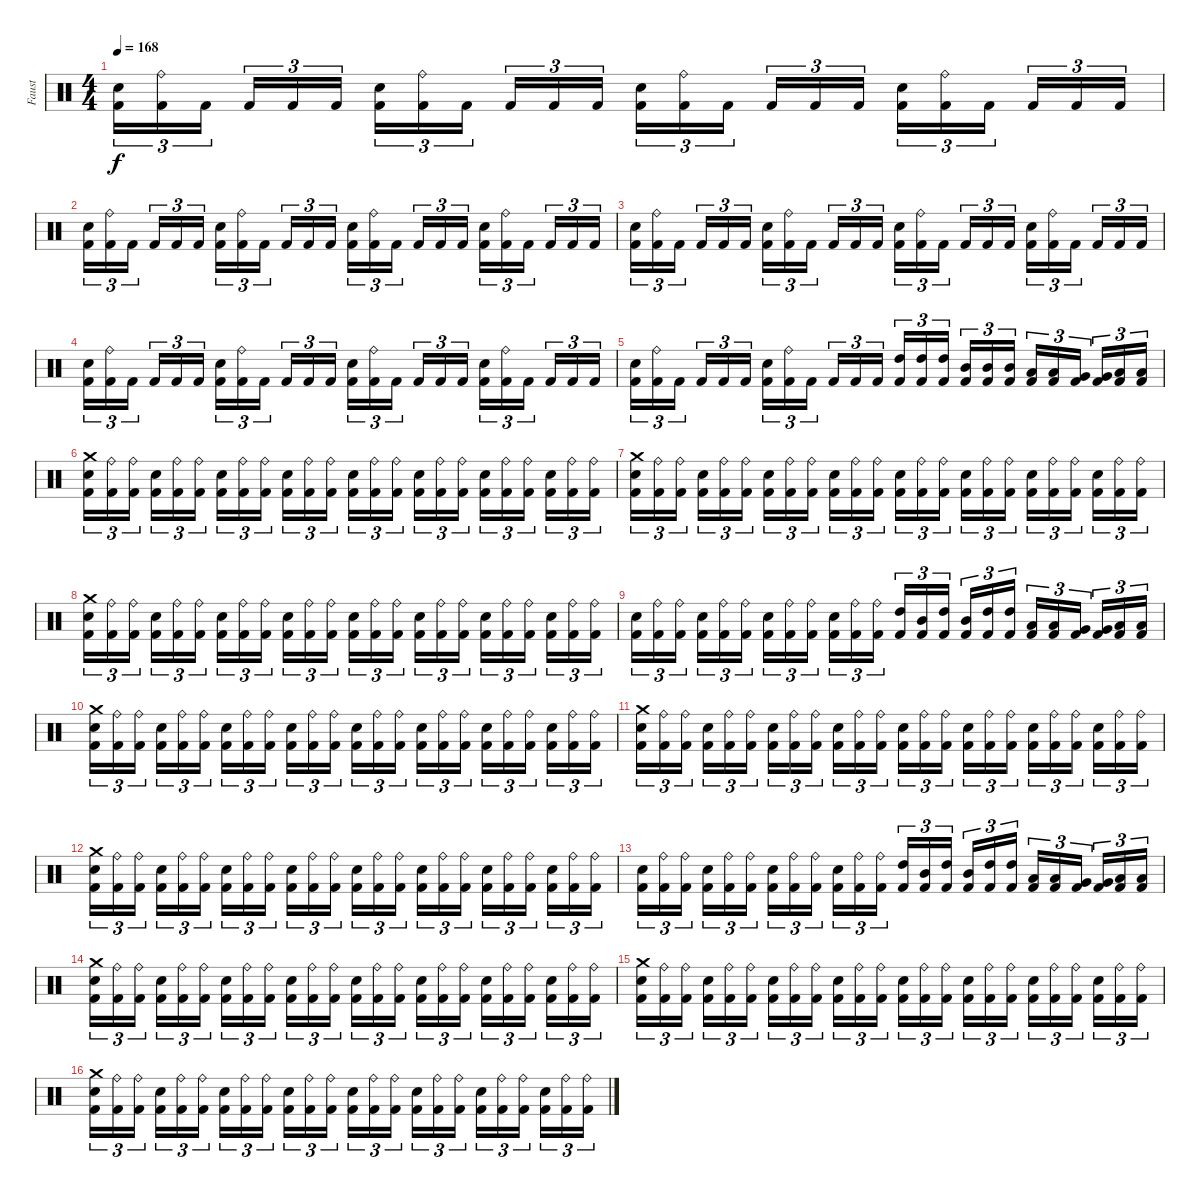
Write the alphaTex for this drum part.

\track ("Faust" "Faust") {instrument percussion}
\staff {score}
\articulation defaults
\ts (4 4)
\tempo 168
\clef neutral
\ks c
("Electric Snare (hit)" "Kick (hit) 2").16{tu (3 2) dy f} ("Ride (bell)" "Kick (hit) 2").16{tu (3 2)} "Kick (hit) 2".16{tu (3 2)} "Kick (hit) 2".16{tu (3 2)} "Kick (hit) 2".16{tu (3 2)} "Kick (hit) 2".16{tu (3 2)} ("Electric Snare (hit)" "Kick (hit) 2").16{tu (3 2)} ("Ride (bell)" "Kick (hit) 2").16{tu (3 2)} "Kick (hit) 2".16{tu (3 2)} "Kick (hit) 2".16{tu (3 2)} "Kick (hit) 2".16{tu (3 2)} "Kick (hit) 2".16{tu (3 2)} ("Electric Snare (hit)" "Kick (hit) 2").16{tu (3 2)} ("Ride (bell)" "Kick (hit) 2").16{tu (3 2)} "Kick (hit) 2".16{tu (3 2)} "Kick (hit) 2".16{tu (3 2)} "Kick (hit) 2".16{tu (3 2)} "Kick (hit) 2".16{tu (3 2)} ("Electric Snare (hit)" "Kick (hit) 2").16{tu (3 2)} ("Ride (bell)" "Kick (hit) 2").16{tu (3 2)} "Kick (hit) 2".16{tu (3 2)} "Kick (hit) 2".16{tu (3 2)} "Kick (hit) 2".16{tu (3 2)} "Kick (hit) 2".16{tu (3 2)} |
("Electric Snare (hit)" "Kick (hit) 2").16{tu (3 2)} ("Ride (bell)" "Kick (hit) 2").16{tu (3 2)} "Kick (hit) 2".16{tu (3 2)} "Kick (hit) 2".16{tu (3 2)} "Kick (hit) 2".16{tu (3 2)} "Kick (hit) 2".16{tu (3 2)} ("Electric Snare (hit)" "Kick (hit) 2").16{tu (3 2)} ("Ride (bell)" "Kick (hit) 2").16{tu (3 2)} "Kick (hit) 2".16{tu (3 2)} "Kick (hit) 2".16{tu (3 2)} "Kick (hit) 2".16{tu (3 2)} "Kick (hit) 2".16{tu (3 2)} ("Electric Snare (hit)" "Kick (hit) 2").16{tu (3 2)} ("Ride (bell)" "Kick (hit) 2").16{tu (3 2)} "Kick (hit) 2".16{tu (3 2)} "Kick (hit) 2".16{tu (3 2)} "Kick (hit) 2".16{tu (3 2)} "Kick (hit) 2".16{tu (3 2)} ("Electric Snare (hit)" "Kick (hit) 2").16{tu (3 2)} ("Ride (bell)" "Kick (hit) 2").16{tu (3 2)} "Kick (hit) 2".16{tu (3 2)} "Kick (hit) 2".16{tu (3 2)} "Kick (hit) 2".16{tu (3 2)} "Kick (hit) 2".16{tu (3 2)} |
("Electric Snare (hit)" "Kick (hit) 2").16{tu (3 2)} ("Ride (bell)" "Kick (hit) 2").16{tu (3 2)} "Kick (hit) 2".16{tu (3 2)} "Kick (hit) 2".16{tu (3 2)} "Kick (hit) 2".16{tu (3 2)} "Kick (hit) 2".16{tu (3 2)} ("Electric Snare (hit)" "Kick (hit) 2").16{tu (3 2)} ("Ride (bell)" "Kick (hit) 2").16{tu (3 2)} "Kick (hit) 2".16{tu (3 2)} "Kick (hit) 2".16{tu (3 2)} "Kick (hit) 2".16{tu (3 2)} "Kick (hit) 2".16{tu (3 2)} ("Electric Snare (hit)" "Kick (hit) 2").16{tu (3 2)} ("Ride (bell)" "Kick (hit) 2").16{tu (3 2)} "Kick (hit) 2".16{tu (3 2)} "Kick (hit) 2".16{tu (3 2)} "Kick (hit) 2".16{tu (3 2)} "Kick (hit) 2".16{tu (3 2)} ("Electric Snare (hit)" "Kick (hit) 2").16{tu (3 2)} ("Ride (bell)" "Kick (hit) 2").16{tu (3 2)} "Kick (hit) 2".16{tu (3 2)} "Kick (hit) 2".16{tu (3 2)} "Kick (hit) 2".16{tu (3 2)} "Kick (hit) 2".16{tu (3 2)} |
("Electric Snare (hit)" "Kick (hit) 2").16{tu (3 2)} ("Ride (bell)" "Kick (hit) 2").16{tu (3 2)} "Kick (hit) 2".16{tu (3 2)} "Kick (hit) 2".16{tu (3 2)} "Kick (hit) 2".16{tu (3 2)} "Kick (hit) 2".16{tu (3 2)} ("Electric Snare (hit)" "Kick (hit) 2").16{tu (3 2)} ("Ride (bell)" "Kick (hit) 2").16{tu (3 2)} "Kick (hit) 2".16{tu (3 2)} "Kick (hit) 2".16{tu (3 2)} "Kick (hit) 2".16{tu (3 2)} "Kick (hit) 2".16{tu (3 2)} ("Electric Snare (hit)" "Kick (hit) 2").16{tu (3 2)} ("Ride (bell)" "Kick (hit) 2").16{tu (3 2)} "Kick (hit) 2".16{tu (3 2)} "Kick (hit) 2".16{tu (3 2)} "Kick (hit) 2".16{tu (3 2)} "Kick (hit) 2".16{tu (3 2)} ("Electric Snare (hit)" "Kick (hit) 2").16{tu (3 2)} ("Ride (bell)" "Kick (hit) 2").16{tu (3 2)} "Kick (hit) 2".16{tu (3 2)} "Kick (hit) 2".16{tu (3 2)} "Kick (hit) 2".16{tu (3 2)} "Kick (hit) 2".16{tu (3 2)} |
("Electric Snare (hit)" "Kick (hit) 2").16{tu (3 2)} ("Ride (bell)" "Kick (hit) 2").16{tu (3 2)} "Kick (hit) 2".16{tu (3 2)} "Kick (hit) 2".16{tu (3 2)} "Kick (hit) 2".16{tu (3 2)} "Kick (hit) 2".16{tu (3 2)} ("Electric Snare (hit)" "Kick (hit) 2").16{tu (3 2)} ("Ride (bell)" "Kick (hit) 2").16{tu (3 2)} "Kick (hit) 2".16{tu (3 2)} "Kick (hit) 2".16{tu (3 2)} "Kick (hit) 2".16{tu (3 2)} "Kick (hit) 2".16{tu (3 2)} ("High Tom (hit)" "Kick (hit) 2").16{tu (3 2)} ("High Tom (hit)" "Kick (hit) 2").16{tu (3 2)} ("High Tom (hit)" "Kick (hit) 2").16{tu (3 2)} ("Mid Tom (hit)" "Kick (hit) 2").16{tu (3 2)} ("Mid Tom (hit)" "Kick (hit) 2").16{tu (3 2)} ("Mid Tom (hit)" "Kick (hit) 2").16{tu (3 2)} ("Low Tom (hit)" "Kick (hit) 2").16{tu (3 2)} ("Low Tom (hit)" "Kick (hit) 2").16{tu (3 2)} ("Very Low Tom (hit)" "Kick (hit) 2").16{tu (3 2)} ("Very Low Tom (hit)" "Kick (hit) 2").16{tu (3 2)} ("Low Floor Tom (hit)" "Kick (hit) 2").16{tu (3 2)} ("Low Floor Tom (hit)" "Kick (hit) 2").16{tu (3 2)} |
("Crash medium (hit)" "Electric Snare (hit)" "Kick (hit) 2").16{tu (3 2)} ("Ride (bell)" "Kick (hit) 2").16{tu (3 2)} ("Ride (bell)" "Kick (hit) 2").16{tu (3 2)} ("Electric Snare (hit)" "Kick (hit) 2").16{tu (3 2)} ("Ride (bell)" "Kick (hit) 2").16{tu (3 2)} ("Ride (bell)" "Kick (hit) 2").16{tu (3 2)} ("Electric Snare (hit)" "Kick (hit) 2").16{tu (3 2)} ("Ride (bell)" "Kick (hit) 2").16{tu (3 2)} ("Ride (bell)" "Kick (hit) 2").16{tu (3 2)} ("Electric Snare (hit)" "Kick (hit) 2").16{tu (3 2)} ("Ride (bell)" "Kick (hit) 2").16{tu (3 2)} ("Ride (bell)" "Kick (hit) 2").16{tu (3 2)} ("Electric Snare (hit)" "Kick (hit) 2").16{tu (3 2)} ("Ride (bell)" "Kick (hit) 2").16{tu (3 2)} ("Ride (bell)" "Kick (hit) 2").16{tu (3 2)} ("Electric Snare (hit)" "Kick (hit) 2").16{tu (3 2)} ("Ride (bell)" "Kick (hit) 2").16{tu (3 2)} ("Ride (bell)" "Kick (hit) 2").16{tu (3 2)} ("Electric Snare (hit)" "Kick (hit) 2").16{tu (3 2)} ("Ride (bell)" "Kick (hit) 2").16{tu (3 2)} ("Ride (bell)" "Kick (hit) 2").16{tu (3 2)} ("Electric Snare (hit)" "Kick (hit) 2").16{tu (3 2)} ("Ride (bell)" "Kick (hit) 2").16{tu (3 2)} ("Ride (bell)" "Kick (hit) 2").16{tu (3 2)} |
("Crash medium (hit)" "Electric Snare (hit)" "Kick (hit) 2").16{tu (3 2)} ("Ride (bell)" "Kick (hit) 2").16{tu (3 2)} ("Ride (bell)" "Kick (hit) 2").16{tu (3 2)} ("Electric Snare (hit)" "Kick (hit) 2").16{tu (3 2)} ("Ride (bell)" "Kick (hit) 2").16{tu (3 2)} ("Ride (bell)" "Kick (hit) 2").16{tu (3 2)} ("Electric Snare (hit)" "Kick (hit) 2").16{tu (3 2)} ("Ride (bell)" "Kick (hit) 2").16{tu (3 2)} ("Ride (bell)" "Kick (hit) 2").16{tu (3 2)} ("Electric Snare (hit)" "Kick (hit) 2").16{tu (3 2)} ("Ride (bell)" "Kick (hit) 2").16{tu (3 2)} ("Ride (bell)" "Kick (hit) 2").16{tu (3 2)} ("Electric Snare (hit)" "Kick (hit) 2").16{tu (3 2)} ("Ride (bell)" "Kick (hit) 2").16{tu (3 2)} ("Ride (bell)" "Kick (hit) 2").16{tu (3 2)} ("Electric Snare (hit)" "Kick (hit) 2").16{tu (3 2)} ("Ride (bell)" "Kick (hit) 2").16{tu (3 2)} ("Ride (bell)" "Kick (hit) 2").16{tu (3 2)} ("Electric Snare (hit)" "Kick (hit) 2").16{tu (3 2)} ("Ride (bell)" "Kick (hit) 2").16{tu (3 2)} ("Ride (bell)" "Kick (hit) 2").16{tu (3 2)} ("Electric Snare (hit)" "Kick (hit) 2").16{tu (3 2)} ("Ride (bell)" "Kick (hit) 2").16{tu (3 2)} ("Ride (bell)" "Kick (hit) 2").16{tu (3 2)} |
("Crash medium (hit)" "Electric Snare (hit)" "Kick (hit) 2").16{tu (3 2)} ("Ride (bell)" "Kick (hit) 2").16{tu (3 2)} ("Ride (bell)" "Kick (hit) 2").16{tu (3 2)} ("Electric Snare (hit)" "Kick (hit) 2").16{tu (3 2)} ("Ride (bell)" "Kick (hit) 2").16{tu (3 2)} ("Ride (bell)" "Kick (hit) 2").16{tu (3 2)} ("Electric Snare (hit)" "Kick (hit) 2").16{tu (3 2)} ("Ride (bell)" "Kick (hit) 2").16{tu (3 2)} ("Ride (bell)" "Kick (hit) 2").16{tu (3 2)} ("Electric Snare (hit)" "Kick (hit) 2").16{tu (3 2)} ("Ride (bell)" "Kick (hit) 2").16{tu (3 2)} ("Ride (bell)" "Kick (hit) 2").16{tu (3 2)} ("Electric Snare (hit)" "Kick (hit) 2").16{tu (3 2)} ("Ride (bell)" "Kick (hit) 2").16{tu (3 2)} ("Ride (bell)" "Kick (hit) 2").16{tu (3 2)} ("Electric Snare (hit)" "Kick (hit) 2").16{tu (3 2)} ("Ride (bell)" "Kick (hit) 2").16{tu (3 2)} ("Ride (bell)" "Kick (hit) 2").16{tu (3 2)} ("Electric Snare (hit)" "Kick (hit) 2").16{tu (3 2)} ("Ride (bell)" "Kick (hit) 2").16{tu (3 2)} ("Ride (bell)" "Kick (hit) 2").16{tu (3 2)} ("Electric Snare (hit)" "Kick (hit) 2").16{tu (3 2)} ("Ride (bell)" "Kick (hit) 2").16{tu (3 2)} ("Ride (bell)" "Kick (hit) 2").16{tu (3 2)} |
("Electric Snare (hit)" "Kick (hit) 2").16{tu (3 2)} ("Ride (bell)" "Kick (hit) 2").16{tu (3 2)} ("Ride (bell)" "Kick (hit) 2").16{tu (3 2)} ("Electric Snare (hit)" "Kick (hit) 2").16{tu (3 2)} ("Ride (bell)" "Kick (hit) 2").16{tu (3 2)} ("Ride (bell)" "Kick (hit) 2").16{tu (3 2)} ("Electric Snare (hit)" "Kick (hit) 2").16{tu (3 2)} ("Ride (bell)" "Kick (hit) 2").16{tu (3 2)} ("Ride (bell)" "Kick (hit) 2").16{tu (3 2)} ("Electric Snare (hit)" "Kick (hit) 2").16{tu (3 2)} ("Ride (bell)" "Kick (hit) 2").16{tu (3 2)} ("Ride (bell)" "Kick (hit) 2").16{tu (3 2)} ("High Tom (hit)" "Kick (hit) 2").16{tu (3 2)} ("Mid Tom (hit)" "Kick (hit) 2").16{tu (3 2)} ("High Tom (hit)" "Kick (hit) 2").16{tu (3 2)} ("Mid Tom (hit)" "Kick (hit) 2").16{tu (3 2)} ("High Tom (hit)" "Kick (hit) 2").16{tu (3 2)} ("High Tom (hit)" "Kick (hit) 2").16{tu (3 2)} ("Low Tom (hit)" "Kick (hit) 2").16{tu (3 2)} ("Low Tom (hit)" "Kick (hit) 2").16{tu (3 2)} ("Very Low Tom (hit)" "Kick (hit) 2").16{tu (3 2)} ("Very Low Tom (hit)" "Kick (hit) 2").16{tu (3 2)} ("Low Floor Tom (hit)" "Kick (hit) 2").16{tu (3 2)} ("Low Floor Tom (hit)" "Kick (hit) 2").16{tu (3 2)} |
("Crash medium (hit)" "Electric Snare (hit)" "Kick (hit) 2").16{tu (3 2)} ("Ride (bell)" "Kick (hit) 2").16{tu (3 2)} ("Ride (bell)" "Kick (hit) 2").16{tu (3 2)} ("Electric Snare (hit)" "Kick (hit) 2").16{tu (3 2)} ("Ride (bell)" "Kick (hit) 2").16{tu (3 2)} ("Ride (bell)" "Kick (hit) 2").16{tu (3 2)} ("Electric Snare (hit)" "Kick (hit) 2").16{tu (3 2)} ("Ride (bell)" "Kick (hit) 2").16{tu (3 2)} ("Ride (bell)" "Kick (hit) 2").16{tu (3 2)} ("Electric Snare (hit)" "Kick (hit) 2").16{tu (3 2)} ("Ride (bell)" "Kick (hit) 2").16{tu (3 2)} ("Ride (bell)" "Kick (hit) 2").16{tu (3 2)} ("Electric Snare (hit)" "Kick (hit) 2").16{tu (3 2)} ("Ride (bell)" "Kick (hit) 2").16{tu (3 2)} ("Ride (bell)" "Kick (hit) 2").16{tu (3 2)} ("Electric Snare (hit)" "Kick (hit) 2").16{tu (3 2)} ("Ride (bell)" "Kick (hit) 2").16{tu (3 2)} ("Ride (bell)" "Kick (hit) 2").16{tu (3 2)} ("Electric Snare (hit)" "Kick (hit) 2").16{tu (3 2)} ("Ride (bell)" "Kick (hit) 2").16{tu (3 2)} ("Ride (bell)" "Kick (hit) 2").16{tu (3 2)} ("Electric Snare (hit)" "Kick (hit) 2").16{tu (3 2)} ("Ride (bell)" "Kick (hit) 2").16{tu (3 2)} ("Ride (bell)" "Kick (hit) 2").16{tu (3 2)} |
("Crash medium (hit)" "Electric Snare (hit)" "Kick (hit) 2").16{tu (3 2)} ("Ride (bell)" "Kick (hit) 2").16{tu (3 2)} ("Ride (bell)" "Kick (hit) 2").16{tu (3 2)} ("Electric Snare (hit)" "Kick (hit) 2").16{tu (3 2)} ("Ride (bell)" "Kick (hit) 2").16{tu (3 2)} ("Ride (bell)" "Kick (hit) 2").16{tu (3 2)} ("Electric Snare (hit)" "Kick (hit) 2").16{tu (3 2)} ("Ride (bell)" "Kick (hit) 2").16{tu (3 2)} ("Ride (bell)" "Kick (hit) 2").16{tu (3 2)} ("Electric Snare (hit)" "Kick (hit) 2").16{tu (3 2)} ("Ride (bell)" "Kick (hit) 2").16{tu (3 2)} ("Ride (bell)" "Kick (hit) 2").16{tu (3 2)} ("Electric Snare (hit)" "Kick (hit) 2").16{tu (3 2)} ("Ride (bell)" "Kick (hit) 2").16{tu (3 2)} ("Ride (bell)" "Kick (hit) 2").16{tu (3 2)} ("Electric Snare (hit)" "Kick (hit) 2").16{tu (3 2)} ("Ride (bell)" "Kick (hit) 2").16{tu (3 2)} ("Ride (bell)" "Kick (hit) 2").16{tu (3 2)} ("Electric Snare (hit)" "Kick (hit) 2").16{tu (3 2)} ("Ride (bell)" "Kick (hit) 2").16{tu (3 2)} ("Ride (bell)" "Kick (hit) 2").16{tu (3 2)} ("Electric Snare (hit)" "Kick (hit) 2").16{tu (3 2)} ("Ride (bell)" "Kick (hit) 2").16{tu (3 2)} ("Ride (bell)" "Kick (hit) 2").16{tu (3 2)} |
("Crash medium (hit)" "Electric Snare (hit)" "Kick (hit) 2").16{tu (3 2)} ("Ride (bell)" "Kick (hit) 2").16{tu (3 2)} ("Ride (bell)" "Kick (hit) 2").16{tu (3 2)} ("Electric Snare (hit)" "Kick (hit) 2").16{tu (3 2)} ("Ride (bell)" "Kick (hit) 2").16{tu (3 2)} ("Ride (bell)" "Kick (hit) 2").16{tu (3 2)} ("Electric Snare (hit)" "Kick (hit) 2").16{tu (3 2)} ("Ride (bell)" "Kick (hit) 2").16{tu (3 2)} ("Ride (bell)" "Kick (hit) 2").16{tu (3 2)} ("Electric Snare (hit)" "Kick (hit) 2").16{tu (3 2)} ("Ride (bell)" "Kick (hit) 2").16{tu (3 2)} ("Ride (bell)" "Kick (hit) 2").16{tu (3 2)} ("Electric Snare (hit)" "Kick (hit) 2").16{tu (3 2)} ("Ride (bell)" "Kick (hit) 2").16{tu (3 2)} ("Ride (bell)" "Kick (hit) 2").16{tu (3 2)} ("Electric Snare (hit)" "Kick (hit) 2").16{tu (3 2)} ("Ride (bell)" "Kick (hit) 2").16{tu (3 2)} ("Ride (bell)" "Kick (hit) 2").16{tu (3 2)} ("Electric Snare (hit)" "Kick (hit) 2").16{tu (3 2)} ("Ride (bell)" "Kick (hit) 2").16{tu (3 2)} ("Ride (bell)" "Kick (hit) 2").16{tu (3 2)} ("Electric Snare (hit)" "Kick (hit) 2").16{tu (3 2)} ("Ride (bell)" "Kick (hit) 2").16{tu (3 2)} ("Ride (bell)" "Kick (hit) 2").16{tu (3 2)} |
("Electric Snare (hit)" "Kick (hit) 2").16{tu (3 2)} ("Ride (bell)" "Kick (hit) 2").16{tu (3 2)} ("Ride (bell)" "Kick (hit) 2").16{tu (3 2)} ("Electric Snare (hit)" "Kick (hit) 2").16{tu (3 2)} ("Ride (bell)" "Kick (hit) 2").16{tu (3 2)} ("Ride (bell)" "Kick (hit) 2").16{tu (3 2)} ("Electric Snare (hit)" "Kick (hit) 2").16{tu (3 2)} ("Ride (bell)" "Kick (hit) 2").16{tu (3 2)} ("Ride (bell)" "Kick (hit) 2").16{tu (3 2)} ("Electric Snare (hit)" "Kick (hit) 2").16{tu (3 2)} ("Ride (bell)" "Kick (hit) 2").16{tu (3 2)} ("Ride (bell)" "Kick (hit) 2").16{tu (3 2)} ("High Tom (hit)" "Kick (hit) 2").16{tu (3 2)} ("Mid Tom (hit)" "Kick (hit) 2").16{tu (3 2)} ("High Tom (hit)" "Kick (hit) 2").16{tu (3 2)} ("Mid Tom (hit)" "Kick (hit) 2").16{tu (3 2)} ("High Tom (hit)" "Kick (hit) 2").16{tu (3 2)} ("High Tom (hit)" "Kick (hit) 2").16{tu (3 2)} ("Low Tom (hit)" "Kick (hit) 2").16{tu (3 2)} ("Low Tom (hit)" "Kick (hit) 2").16{tu (3 2)} ("Very Low Tom (hit)" "Kick (hit) 2").16{tu (3 2)} ("Very Low Tom (hit)" "Kick (hit) 2").16{tu (3 2)} ("Low Floor Tom (hit)" "Kick (hit) 2").16{tu (3 2)} ("Low Floor Tom (hit)" "Kick (hit) 2").16{tu (3 2)} |
("Crash medium (hit)" "Electric Snare (hit)" "Kick (hit) 2").16{tu (3 2)} ("Ride (bell)" "Kick (hit) 2").16{tu (3 2)} ("Ride (bell)" "Kick (hit) 2").16{tu (3 2)} ("Electric Snare (hit)" "Kick (hit) 2").16{tu (3 2)} ("Ride (bell)" "Kick (hit) 2").16{tu (3 2)} ("Ride (bell)" "Kick (hit) 2").16{tu (3 2)} ("Electric Snare (hit)" "Kick (hit) 2").16{tu (3 2)} ("Ride (bell)" "Kick (hit) 2").16{tu (3 2)} ("Ride (bell)" "Kick (hit) 2").16{tu (3 2)} ("Electric Snare (hit)" "Kick (hit) 2").16{tu (3 2)} ("Ride (bell)" "Kick (hit) 2").16{tu (3 2)} ("Ride (bell)" "Kick (hit) 2").16{tu (3 2)} ("Electric Snare (hit)" "Kick (hit) 2").16{tu (3 2)} ("Ride (bell)" "Kick (hit) 2").16{tu (3 2)} ("Ride (bell)" "Kick (hit) 2").16{tu (3 2)} ("Electric Snare (hit)" "Kick (hit) 2").16{tu (3 2)} ("Ride (bell)" "Kick (hit) 2").16{tu (3 2)} ("Ride (bell)" "Kick (hit) 2").16{tu (3 2)} ("Electric Snare (hit)" "Kick (hit) 2").16{tu (3 2)} ("Ride (bell)" "Kick (hit) 2").16{tu (3 2)} ("Ride (bell)" "Kick (hit) 2").16{tu (3 2)} ("Electric Snare (hit)" "Kick (hit) 2").16{tu (3 2)} ("Ride (bell)" "Kick (hit) 2").16{tu (3 2)} ("Ride (bell)" "Kick (hit) 2").16{tu (3 2)} |
("Crash medium (hit)" "Electric Snare (hit)" "Kick (hit) 2").16{tu (3 2)} ("Ride (bell)" "Kick (hit) 2").16{tu (3 2)} ("Ride (bell)" "Kick (hit) 2").16{tu (3 2)} ("Electric Snare (hit)" "Kick (hit) 2").16{tu (3 2)} ("Ride (bell)" "Kick (hit) 2").16{tu (3 2)} ("Ride (bell)" "Kick (hit) 2").16{tu (3 2)} ("Electric Snare (hit)" "Kick (hit) 2").16{tu (3 2)} ("Ride (bell)" "Kick (hit) 2").16{tu (3 2)} ("Ride (bell)" "Kick (hit) 2").16{tu (3 2)} ("Electric Snare (hit)" "Kick (hit) 2").16{tu (3 2)} ("Ride (bell)" "Kick (hit) 2").16{tu (3 2)} ("Ride (bell)" "Kick (hit) 2").16{tu (3 2)} ("Electric Snare (hit)" "Kick (hit) 2").16{tu (3 2)} ("Ride (bell)" "Kick (hit) 2").16{tu (3 2)} ("Ride (bell)" "Kick (hit) 2").16{tu (3 2)} ("Electric Snare (hit)" "Kick (hit) 2").16{tu (3 2)} ("Ride (bell)" "Kick (hit) 2").16{tu (3 2)} ("Ride (bell)" "Kick (hit) 2").16{tu (3 2)} ("Electric Snare (hit)" "Kick (hit) 2").16{tu (3 2)} ("Ride (bell)" "Kick (hit) 2").16{tu (3 2)} ("Ride (bell)" "Kick (hit) 2").16{tu (3 2)} ("Electric Snare (hit)" "Kick (hit) 2").16{tu (3 2)} ("Ride (bell)" "Kick (hit) 2").16{tu (3 2)} ("Ride (bell)" "Kick (hit) 2").16{tu (3 2)} |
("Crash medium (hit)" "Electric Snare (hit)" "Kick (hit) 2").16{tu (3 2)} ("Ride (bell)" "Kick (hit) 2").16{tu (3 2)} ("Ride (bell)" "Kick (hit) 2").16{tu (3 2)} ("Electric Snare (hit)" "Kick (hit) 2").16{tu (3 2)} ("Ride (bell)" "Kick (hit) 2").16{tu (3 2)} ("Ride (bell)" "Kick (hit) 2").16{tu (3 2)} ("Electric Snare (hit)" "Kick (hit) 2").16{tu (3 2)} ("Ride (bell)" "Kick (hit) 2").16{tu (3 2)} ("Ride (bell)" "Kick (hit) 2").16{tu (3 2)} ("Electric Snare (hit)" "Kick (hit) 2").16{tu (3 2)} ("Ride (bell)" "Kick (hit) 2").16{tu (3 2)} ("Ride (bell)" "Kick (hit) 2").16{tu (3 2)} ("Electric Snare (hit)" "Kick (hit) 2").16{tu (3 2)} ("Ride (bell)" "Kick (hit) 2").16{tu (3 2)} ("Ride (bell)" "Kick (hit) 2").16{tu (3 2)} ("Electric Snare (hit)" "Kick (hit) 2").16{tu (3 2)} ("Ride (bell)" "Kick (hit) 2").16{tu (3 2)} ("Ride (bell)" "Kick (hit) 2").16{tu (3 2)} ("Electric Snare (hit)" "Kick (hit) 2").16{tu (3 2)} ("Ride (bell)" "Kick (hit) 2").16{tu (3 2)} ("Ride (bell)" "Kick (hit) 2").16{tu (3 2)} ("Electric Snare (hit)" "Kick (hit) 2").16{tu (3 2)} ("Ride (bell)" "Kick (hit) 2").16{tu (3 2)} ("Ride (bell)" "Kick (hit) 2").16{tu (3 2)}
